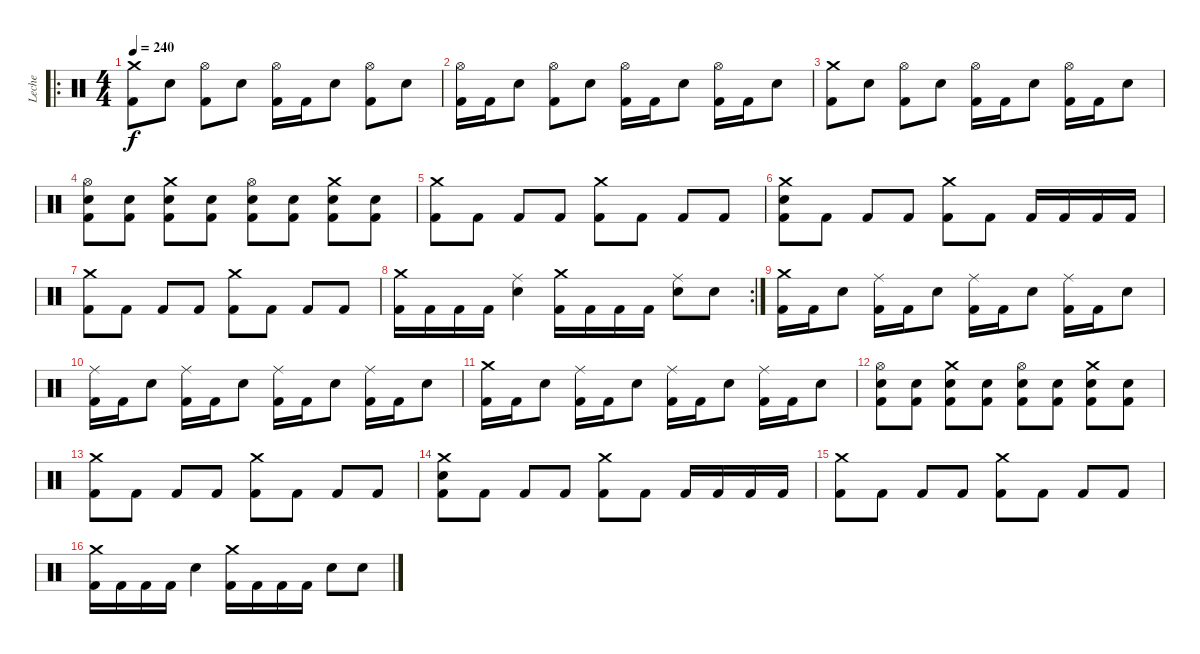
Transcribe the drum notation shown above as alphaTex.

\track ("Leche" "Leche") {instrument percussion}
\staff {score}
\articulation defaults
\ro
\ts (4 4)
\tempo 240
\clef neutral
\ks c
("Crash medium (hit)" "Kick (hit) 2").8{dy f} "Electric Snare (hit)".8 ("Hi-Hat (open)" "Kick (hit) 2").8 "Electric Snare (hit)".8 ("Hi-Hat (open)" "Kick (hit) 2").16 "Kick (hit) 2".16 "Electric Snare (hit)".8 ("Hi-Hat (open)" "Kick (hit) 2").8 "Electric Snare (hit)".8 |
("Hi-Hat (open)" "Kick (hit) 2").16 "Kick (hit) 2".16 "Electric Snare (hit)".8 ("Hi-Hat (open)" "Kick (hit) 2").8 "Electric Snare (hit)".8 ("Hi-Hat (open)" "Kick (hit) 2").16 "Kick (hit) 2".16 "Electric Snare (hit)".8 ("Hi-Hat (open)" "Kick (hit) 2").16 "Kick (hit) 2".16 "Electric Snare (hit)".8 |
("Crash medium (hit)" "Kick (hit) 2").8 "Electric Snare (hit)".8 ("Hi-Hat (open)" "Kick (hit) 2").8 "Electric Snare (hit)".8 ("Hi-Hat (open)" "Kick (hit) 2").16 "Kick (hit) 2".16 "Electric Snare (hit)".8 ("Hi-Hat (open)" "Kick (hit) 2").16 "Kick (hit) 2".16 "Electric Snare (hit)".8 |
("Hi-Hat (open)" "Electric Snare (hit)" "Kick (hit) 2").8 ("Electric Snare (hit)" "Kick (hit) 2").8 ("Crash medium (hit)" "Electric Snare (hit)" "Kick (hit) 2").8 ("Electric Snare (hit)" "Kick (hit) 2").8 ("Hi-Hat (open)" "Electric Snare (hit)" "Kick (hit) 2").8 ("Electric Snare (hit)" "Kick (hit) 2").8 ("Crash medium (hit)" "Electric Snare (hit)" "Kick (hit) 2").8 ("Electric Snare (hit)" "Kick (hit) 2").8 |
("Crash medium (hit)" "Kick (hit) 2").8 "Kick (hit) 2".8 "Kick (hit) 2".8 "Kick (hit) 2".8 ("Crash medium (hit)" "Kick (hit) 2").8 "Kick (hit) 2".8 "Kick (hit) 2".8 "Kick (hit) 2".8 |
("Crash medium (hit)" "Electric Snare (hit)" "Kick (hit) 2").8 "Kick (hit) 2".8 "Kick (hit) 2".8 "Kick (hit) 2".8 ("Crash medium (hit)" "Kick (hit) 2").8 "Kick (hit) 2".8 "Kick (hit) 2".16 "Kick (hit) 2".16 "Kick (hit) 2".16 "Kick (hit) 2".16 |
("Crash medium (hit)" "Kick (hit) 2").8 "Kick (hit) 2".8 "Kick (hit) 2".8 "Kick (hit) 2".8 ("Crash medium (hit)" "Kick (hit) 2").8 "Kick (hit) 2".8 "Kick (hit) 2".8 "Kick (hit) 2".8 |
\rc 2
("Crash medium (hit)" "Kick (hit) 2").16 "Kick (hit) 2".16 "Kick (hit) 2".16 "Kick (hit) 2".16 ("Ride (middle)" "Electric Snare (hit)").4 ("Crash medium (hit)" "Kick (hit) 2").16 "Kick (hit) 2".16 "Kick (hit) 2".16 "Kick (hit) 2".16 ("Ride (middle)" "Electric Snare (hit)").8 "Electric Snare (hit)".8 |
("Crash medium (hit)" "Kick (hit) 2").16 "Kick (hit) 2".16 "Electric Snare (hit)".8 ("Ride (middle)" "Kick (hit) 2").16 "Kick (hit) 2".16 "Electric Snare (hit)".8 ("Ride (middle)" "Kick (hit) 2").16 "Kick (hit) 2".16 "Electric Snare (hit)".8 ("Ride (middle)" "Kick (hit) 2").16 "Kick (hit) 2".16 "Electric Snare (hit)".8 |
("Ride (middle)" "Kick (hit) 2").16 "Kick (hit) 2".16 "Electric Snare (hit)".8 ("Ride (middle)" "Kick (hit) 2").16 "Kick (hit) 2".16 "Electric Snare (hit)".8 ("Ride (middle)" "Kick (hit) 2").16 "Kick (hit) 2".16 "Electric Snare (hit)".8 ("Ride (middle)" "Kick (hit) 2").16 "Kick (hit) 2".16 "Electric Snare (hit)".8 |
("Crash medium (hit)" "Kick (hit) 2").16 "Kick (hit) 2".16 "Electric Snare (hit)".8 ("Ride (middle)" "Kick (hit) 2").16 "Kick (hit) 2".16 "Electric Snare (hit)".8 ("Ride (middle)" "Kick (hit) 2").16 "Kick (hit) 2".16 "Electric Snare (hit)".8 ("Ride (middle)" "Kick (hit) 2").16 "Kick (hit) 2".16 "Electric Snare (hit)".8 |
("Hi-Hat (open)" "Electric Snare (hit)" "Kick (hit) 2").8 ("Electric Snare (hit)" "Kick (hit) 2").8 ("Crash medium (hit)" "Electric Snare (hit)" "Kick (hit) 2").8 ("Electric Snare (hit)" "Kick (hit) 2").8 ("Hi-Hat (open)" "Electric Snare (hit)" "Kick (hit) 2").8 ("Electric Snare (hit)" "Kick (hit) 2").8 ("Crash medium (hit)" "Electric Snare (hit)" "Kick (hit) 2").8 ("Electric Snare (hit)" "Kick (hit) 2").8 |
("Crash medium (hit)" "Kick (hit) 2").8 "Kick (hit) 2".8 "Kick (hit) 2".8 "Kick (hit) 2".8 ("Crash medium (hit)" "Kick (hit) 2").8 "Kick (hit) 2".8 "Kick (hit) 2".8 "Kick (hit) 2".8 |
("Crash medium (hit)" "Electric Snare (hit)" "Kick (hit) 2").8 "Kick (hit) 2".8 "Kick (hit) 2".8 "Kick (hit) 2".8 ("Crash medium (hit)" "Kick (hit) 2").8 "Kick (hit) 2".8 "Kick (hit) 2".16 "Kick (hit) 2".16 "Kick (hit) 2".16 "Kick (hit) 2".16 |
("Crash medium (hit)" "Kick (hit) 2").8 "Kick (hit) 2".8 "Kick (hit) 2".8 "Kick (hit) 2".8 ("Crash medium (hit)" "Kick (hit) 2").8 "Kick (hit) 2".8 "Kick (hit) 2".8 "Kick (hit) 2".8 |
("Crash medium (hit)" "Kick (hit) 2").16 "Kick (hit) 2".16 "Kick (hit) 2".16 "Kick (hit) 2".16 "Electric Snare (hit)".4 ("Crash medium (hit)" "Kick (hit) 2").16 "Kick (hit) 2".16 "Kick (hit) 2".16 "Kick (hit) 2".16 "Electric Snare (hit)".8 "Electric Snare (hit)".8
